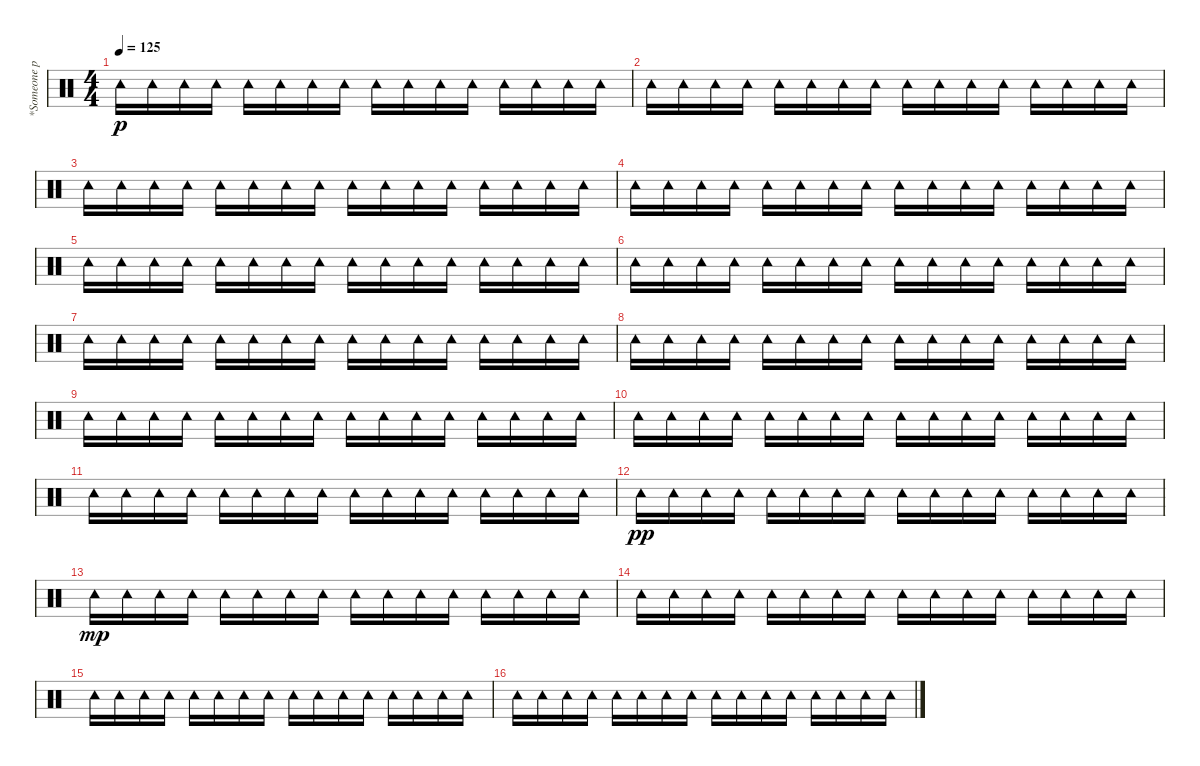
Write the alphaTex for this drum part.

\track ("*Someone play the tambourine" "*Someone p") {instrument percussion}
\staff {score}
\articulation defaults
\ts (4 4)
\tempo 125
\clef neutral
\ks c "Tambourine (hit)".16{dy p} "Tambourine (hit)".16 "Tambourine (hit)".16 "Tambourine (hit)".16 "Tambourine (hit)".16 "Tambourine (hit)".16 "Tambourine (hit)".16 "Tambourine (hit)".16 "Tambourine (hit)".16 "Tambourine (hit)".16 "Tambourine (hit)".16 "Tambourine (hit)".16 "Tambourine (hit)".16 "Tambourine (hit)".16 "Tambourine (hit)".16 "Tambourine (hit)".16
|
"Tambourine (hit)".16 "Tambourine (hit)".16 "Tambourine (hit)".16 "Tambourine (hit)".16 "Tambourine (hit)".16 "Tambourine (hit)".16 "Tambourine (hit)".16 "Tambourine (hit)".16 "Tambourine (hit)".16 "Tambourine (hit)".16 "Tambourine (hit)".16 "Tambourine (hit)".16 "Tambourine (hit)".16 "Tambourine (hit)".16 "Tambourine (hit)".16 "Tambourine (hit)".16 |
"Tambourine (hit)".16 "Tambourine (hit)".16 "Tambourine (hit)".16 "Tambourine (hit)".16 "Tambourine (hit)".16 "Tambourine (hit)".16 "Tambourine (hit)".16 "Tambourine (hit)".16 "Tambourine (hit)".16 "Tambourine (hit)".16 "Tambourine (hit)".16 "Tambourine (hit)".16 "Tambourine (hit)".16 "Tambourine (hit)".16 "Tambourine (hit)".16 "Tambourine (hit)".16 |
"Tambourine (hit)".16 "Tambourine (hit)".16 "Tambourine (hit)".16 "Tambourine (hit)".16 "Tambourine (hit)".16 "Tambourine (hit)".16 "Tambourine (hit)".16 "Tambourine (hit)".16 "Tambourine (hit)".16 "Tambourine (hit)".16 "Tambourine (hit)".16 "Tambourine (hit)".16 "Tambourine (hit)".16 "Tambourine (hit)".16 "Tambourine (hit)".16 "Tambourine (hit)".16 |
"Tambourine (hit)".16 "Tambourine (hit)".16 "Tambourine (hit)".16 "Tambourine (hit)".16 "Tambourine (hit)".16 "Tambourine (hit)".16 "Tambourine (hit)".16 "Tambourine (hit)".16 "Tambourine (hit)".16 "Tambourine (hit)".16 "Tambourine (hit)".16 "Tambourine (hit)".16 "Tambourine (hit)".16 "Tambourine (hit)".16 "Tambourine (hit)".16 "Tambourine (hit)".16 |
"Tambourine (hit)".16 "Tambourine (hit)".16 "Tambourine (hit)".16 "Tambourine (hit)".16 "Tambourine (hit)".16 "Tambourine (hit)".16 "Tambourine (hit)".16 "Tambourine (hit)".16 "Tambourine (hit)".16 "Tambourine (hit)".16 "Tambourine (hit)".16 "Tambourine (hit)".16 "Tambourine (hit)".16 "Tambourine (hit)".16 "Tambourine (hit)".16 "Tambourine (hit)".16 |
"Tambourine (hit)".16 "Tambourine (hit)".16 "Tambourine (hit)".16 "Tambourine (hit)".16 "Tambourine (hit)".16 "Tambourine (hit)".16 "Tambourine (hit)".16 "Tambourine (hit)".16 "Tambourine (hit)".16 "Tambourine (hit)".16 "Tambourine (hit)".16 "Tambourine (hit)".16 "Tambourine (hit)".16 "Tambourine (hit)".16 "Tambourine (hit)".16 "Tambourine (hit)".16 |
"Tambourine (hit)".16 "Tambourine (hit)".16 "Tambourine (hit)".16 "Tambourine (hit)".16 "Tambourine (hit)".16 "Tambourine (hit)".16 "Tambourine (hit)".16 "Tambourine (hit)".16 "Tambourine (hit)".16 "Tambourine (hit)".16 "Tambourine (hit)".16 "Tambourine (hit)".16 "Tambourine (hit)".16 "Tambourine (hit)".16 "Tambourine (hit)".16 "Tambourine (hit)".16 |
"Tambourine (hit)".16 "Tambourine (hit)".16 "Tambourine (hit)".16 "Tambourine (hit)".16 "Tambourine (hit)".16 "Tambourine (hit)".16 "Tambourine (hit)".16 "Tambourine (hit)".16 "Tambourine (hit)".16 "Tambourine (hit)".16 "Tambourine (hit)".16 "Tambourine (hit)".16 "Tambourine (hit)".16 "Tambourine (hit)".16 "Tambourine (hit)".16 "Tambourine (hit)".16 |
"Tambourine (hit)".16 "Tambourine (hit)".16 "Tambourine (hit)".16 "Tambourine (hit)".16 "Tambourine (hit)".16 "Tambourine (hit)".16 "Tambourine (hit)".16 "Tambourine (hit)".16 "Tambourine (hit)".16 "Tambourine (hit)".16 "Tambourine (hit)".16 "Tambourine (hit)".16 "Tambourine (hit)".16 "Tambourine (hit)".16 "Tambourine (hit)".16 "Tambourine (hit)".16 |
"Tambourine (hit)".16 "Tambourine (hit)".16 "Tambourine (hit)".16 "Tambourine (hit)".16 "Tambourine (hit)".16 "Tambourine (hit)".16 "Tambourine (hit)".16 "Tambourine (hit)".16 "Tambourine (hit)".16 "Tambourine (hit)".16 "Tambourine (hit)".16 "Tambourine (hit)".16 "Tambourine (hit)".16 "Tambourine (hit)".16 "Tambourine (hit)".16 "Tambourine (hit)".16 |
"Tambourine (hit)".16{dy pp} "Tambourine (hit)".16 "Tambourine (hit)".16 "Tambourine (hit)".16 "Tambourine (hit)".16 "Tambourine (hit)".16 "Tambourine (hit)".16 "Tambourine (hit)".16 "Tambourine (hit)".16 "Tambourine (hit)".16 "Tambourine (hit)".16 "Tambourine (hit)".16 "Tambourine (hit)".16 "Tambourine (hit)".16 "Tambourine (hit)".16 "Tambourine (hit)".16 |
"Tambourine (hit)".16{dy mp} "Tambourine (hit)".16 "Tambourine (hit)".16 "Tambourine (hit)".16 "Tambourine (hit)".16 "Tambourine (hit)".16 "Tambourine (hit)".16 "Tambourine (hit)".16 "Tambourine (hit)".16 "Tambourine (hit)".16 "Tambourine (hit)".16 "Tambourine (hit)".16 "Tambourine (hit)".16 "Tambourine (hit)".16 "Tambourine (hit)".16 "Tambourine (hit)".16 |
"Tambourine (hit)".16 "Tambourine (hit)".16 "Tambourine (hit)".16 "Tambourine (hit)".16 "Tambourine (hit)".16 "Tambourine (hit)".16 "Tambourine (hit)".16 "Tambourine (hit)".16 "Tambourine (hit)".16 "Tambourine (hit)".16 "Tambourine (hit)".16 "Tambourine (hit)".16 "Tambourine (hit)".16 "Tambourine (hit)".16 "Tambourine (hit)".16 "Tambourine (hit)".16 |
"Tambourine (hit)".16 "Tambourine (hit)".16 "Tambourine (hit)".16 "Tambourine (hit)".16 "Tambourine (hit)".16 "Tambourine (hit)".16 "Tambourine (hit)".16 "Tambourine (hit)".16 "Tambourine (hit)".16 "Tambourine (hit)".16 "Tambourine (hit)".16 "Tambourine (hit)".16 "Tambourine (hit)".16 "Tambourine (hit)".16 "Tambourine (hit)".16 "Tambourine (hit)".16 |
"Tambourine (hit)".16 "Tambourine (hit)".16 "Tambourine (hit)".16 "Tambourine (hit)".16 "Tambourine (hit)".16 "Tambourine (hit)".16 "Tambourine (hit)".16 "Tambourine (hit)".16 "Tambourine (hit)".16 "Tambourine (hit)".16 "Tambourine (hit)".16 "Tambourine (hit)".16 "Tambourine (hit)".16 "Tambourine (hit)".16 "Tambourine (hit)".16 "Tambourine (hit)".16
